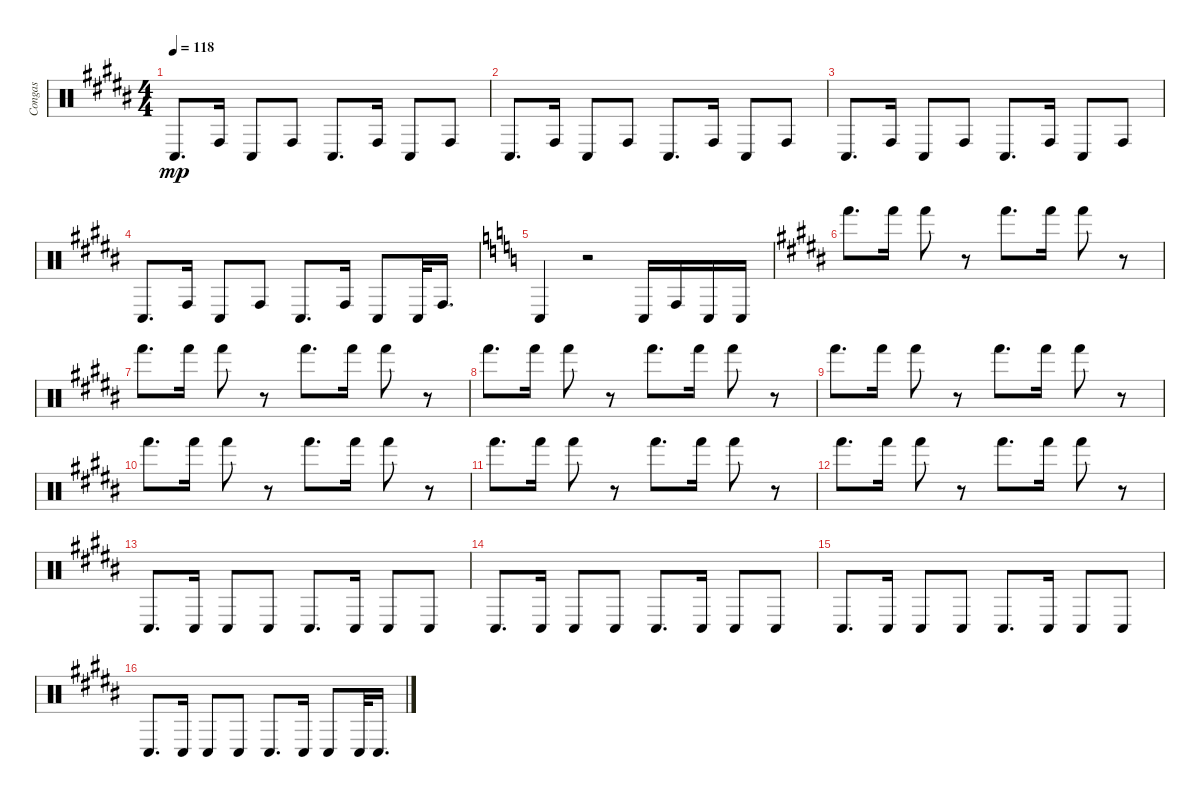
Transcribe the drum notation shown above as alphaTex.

\track ("Congas" "Congas") {instrument percussion}
\staff {score}
\articulation defaults
\ts (4 4)
\tempo 118
\clef neutral
\ks b "Conga low (hit)".8{d dy mp} "Conga high (hit)".16 "Conga low (hit)".8 "Conga high (hit)".8 "Conga low (hit)".8{d} "Conga high (hit)".16 "Conga low (hit)".8 "Conga high (hit)".8
|
"Conga low (hit)".8{d} "Conga high (hit)".16 "Conga low (hit)".8 "Conga high (hit)".8 "Conga low (hit)".8{d} "Conga high (hit)".16 "Conga low (hit)".8 "Conga high (hit)".8 |
"Conga low (hit)".8{d} "Conga high (hit)".16 "Conga low (hit)".8 "Conga high (hit)".8 "Conga low (hit)".8{d} "Conga high (hit)".16 "Conga low (hit)".8 "Conga high (hit)".8 |
"Conga low (hit)".8{d} "Conga high (hit)".16 "Conga low (hit)".8 "Conga high (hit)".8 "Conga low (hit)".8{d} "Conga high (hit)".16 "Conga low (hit)".8 "Conga low (hit)".32 "Conga high (hit)".16{d} |
\ks c "Conga low (hit)".4
r.2 "Conga low (hit)".16 "Conga high (hit)".16 "Conga low (hit)".16 "Conga low (hit)".16 |
\ks b "Hand (hit)".8{d} "Hand (hit)".16 "Hand (hit)".8
r.8 "Hand (hit)".8{d} "Hand (hit)".16 "Hand (hit)".8 r.8 |
"Hand (hit)".8{d} "Hand (hit)".16 "Hand (hit)".8 r.8 "Hand (hit)".8{d} "Hand (hit)".16 "Hand (hit)".8 r.8 |
"Hand (hit)".8{d} "Hand (hit)".16 "Hand (hit)".8 r.8 "Hand (hit)".8{d} "Hand (hit)".16 "Hand (hit)".8 r.8 |
"Hand (hit)".8{d} "Hand (hit)".16 "Hand (hit)".8 r.8 "Hand (hit)".8{d} "Hand (hit)".16 "Hand (hit)".8 r.8 |
"Hand (hit)".8{d} "Hand (hit)".16 "Hand (hit)".8 r.8 "Hand (hit)".8{d} "Hand (hit)".16 "Hand (hit)".8 r.8 |
"Hand (hit)".8{d} "Hand (hit)".16 "Hand (hit)".8 r.8 "Hand (hit)".8{d} "Hand (hit)".16 "Hand (hit)".8 r.8 |
"Hand (hit)".8{d} "Hand (hit)".16 "Hand (hit)".8 r.8 "Hand (hit)".8{d} "Hand (hit)".16 "Hand (hit)".8 r.8 |
"Conga low (hit)".8{d} "Conga low (hit)".16 "Conga low (hit)".8 "Conga low (hit)".8 "Conga low (hit)".8{d} "Conga low (hit)".16 "Conga low (hit)".8 "Conga low (hit)".8 |
"Conga low (hit)".8{d} "Conga low (hit)".16 "Conga low (hit)".8 "Conga low (hit)".8 "Conga low (hit)".8{d} "Conga low (hit)".16 "Conga low (hit)".8 "Conga low (hit)".8 |
"Conga low (hit)".8{d} "Conga low (hit)".16 "Conga low (hit)".8 "Conga low (hit)".8 "Conga low (hit)".8{d} "Conga low (hit)".16 "Conga low (hit)".8 "Conga low (hit)".8 |
"Conga low (hit)".8{d} "Conga low (hit)".16 "Conga low (hit)".8 "Conga low (hit)".8 "Conga low (hit)".8{d} "Conga low (hit)".16 "Conga low (hit)".8 "Conga low (hit)".32 "Conga low (hit)".16{d}
